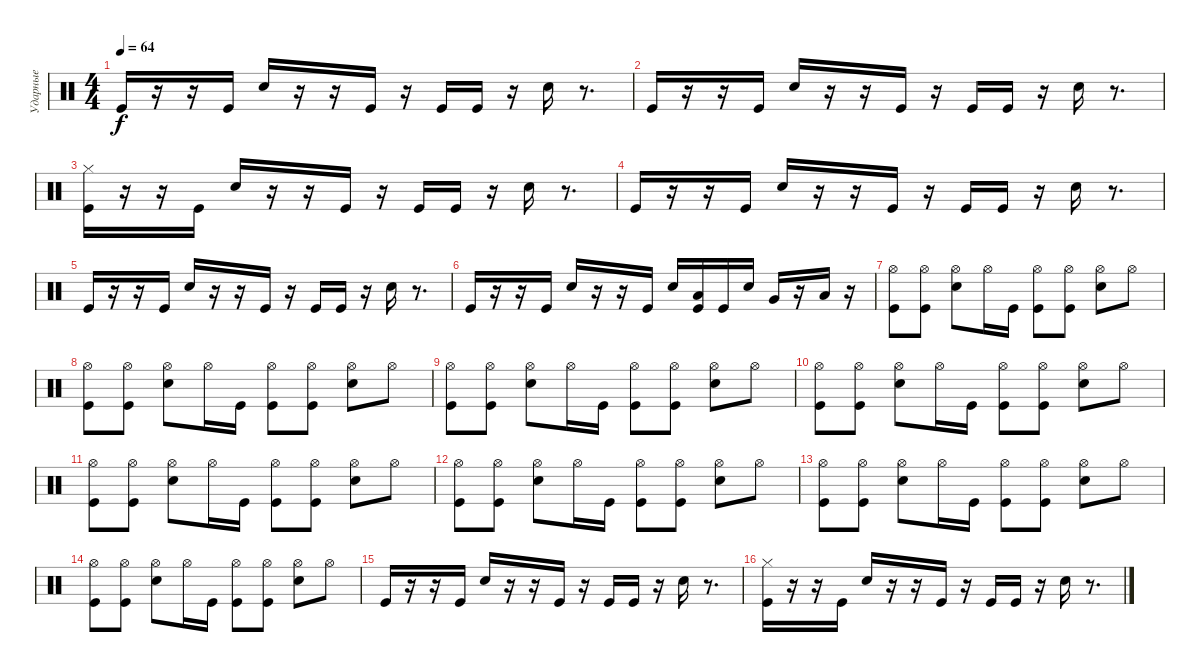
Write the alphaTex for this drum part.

\track ("Ударные" "Ударные") {instrument percussion}
\staff {score}
\articulation defaults
\ts (4 4)
\tempo 64
\clef neutral
\ks c "Kick (hit)".16{dy f}
r.16 r.16 "Kick (hit)".16 "Snare (hit) 2".16 r.16 r.16 "Kick (hit)".16 r.16 "Kick (hit)".16 "Kick (hit)".16 r.16 "Snare (hit) 2".16 r.8{d} |
"Kick (hit)".16 r.16 r.16 "Kick (hit)".16 "Snare (hit) 2".16 r.16 r.16 "Kick (hit)".16 r.16 "Kick (hit)".16 "Kick (hit)".16 r.16 "Snare (hit) 2".16 r.8{d} |
("Kick (hit)" "Hi-Hat (closed)").16 r.16 r.16 "Kick (hit)".16 "Snare (hit) 2".16 r.16 r.16 "Kick (hit)".16 r.16 "Kick (hit)".16 "Kick (hit)".16 r.16 "Snare (hit) 2".16 r.8{d} |
"Kick (hit)".16 r.16 r.16 "Kick (hit)".16 "Snare (hit) 2".16 r.16 r.16 "Kick (hit)".16 r.16 "Kick (hit)".16 "Kick (hit)".16 r.16 "Snare (hit) 2".16 r.8{d} |
"Kick (hit)".16 r.16 r.16 "Kick (hit)".16 "Snare (hit) 2".16 r.16 r.16 "Kick (hit)".16 r.16 "Kick (hit)".16 "Kick (hit)".16 r.16 "Snare (hit) 2".16 r.8{d} |
"Kick (hit)".16 r.16 r.16 "Kick (hit)".16 "Snare (hit) 2".16 r.16 r.16 "Kick (hit)".16 "Snare (hit) 2".16 ("Kick (hit)" "Low Tom (hit)").16 "Kick (hit)".16 "Snare (hit) 2".16 "Very Low Tom (hit)".16 r.16 "Low Floor Tom (hit)".16 r.16 |
("Hi-Hat (open)" "Kick (hit)").8 ("Hi-Hat (open)" "Kick (hit)").8 ("Snare (hit) 2" "Hi-Hat (open)").8 "Hi-Hat (open)".16 "Kick (hit)".16 ("Hi-Hat (open)" "Kick (hit)").8 ("Hi-Hat (open)" "Kick (hit)").8 ("Hi-Hat (open)" "Snare (hit) 2").8 "Hi-Hat (open)".8 |
("Hi-Hat (open)" "Kick (hit)").8 ("Hi-Hat (open)" "Kick (hit)").8 ("Snare (hit) 2" "Hi-Hat (open)").8 "Hi-Hat (open)".16 "Kick (hit)".16 ("Hi-Hat (open)" "Kick (hit)").8 ("Hi-Hat (open)" "Kick (hit)").8 ("Hi-Hat (open)" "Snare (hit) 2").8 "Hi-Hat (open)".8 |
("Hi-Hat (open)" "Kick (hit)").8 ("Hi-Hat (open)" "Kick (hit)").8 ("Snare (hit) 2" "Hi-Hat (open)").8 "Hi-Hat (open)".16 "Kick (hit)".16 ("Hi-Hat (open)" "Kick (hit)").8 ("Hi-Hat (open)" "Kick (hit)").8 ("Hi-Hat (open)" "Snare (hit) 2").8 "Hi-Hat (open)".8 |
("Hi-Hat (open)" "Kick (hit)").8 ("Hi-Hat (open)" "Kick (hit)").8 ("Snare (hit) 2" "Hi-Hat (open)").8 "Hi-Hat (open)".16 "Kick (hit)".16 ("Hi-Hat (open)" "Kick (hit)").8 ("Hi-Hat (open)" "Kick (hit)").8 ("Hi-Hat (open)" "Snare (hit) 2").8 "Hi-Hat (open)".8 |
("Hi-Hat (open)" "Kick (hit)").8 ("Hi-Hat (open)" "Kick (hit)").8 ("Snare (hit) 2" "Hi-Hat (open)").8 "Hi-Hat (open)".16 "Kick (hit)".16 ("Hi-Hat (open)" "Kick (hit)").8 ("Hi-Hat (open)" "Kick (hit)").8 ("Hi-Hat (open)" "Snare (hit) 2").8 "Hi-Hat (open)".8 |
("Hi-Hat (open)" "Kick (hit)").8 ("Hi-Hat (open)" "Kick (hit)").8 ("Snare (hit) 2" "Hi-Hat (open)").8 "Hi-Hat (open)".16 "Kick (hit)".16 ("Hi-Hat (open)" "Kick (hit)").8 ("Hi-Hat (open)" "Kick (hit)").8 ("Hi-Hat (open)" "Snare (hit) 2").8 "Hi-Hat (open)".8 |
("Hi-Hat (open)" "Kick (hit)").8 ("Hi-Hat (open)" "Kick (hit)").8 ("Snare (hit) 2" "Hi-Hat (open)").8 "Hi-Hat (open)".16 "Kick (hit)".16 ("Hi-Hat (open)" "Kick (hit)").8 ("Hi-Hat (open)" "Kick (hit)").8 ("Hi-Hat (open)" "Snare (hit) 2").8 "Hi-Hat (open)".8 |
("Hi-Hat (open)" "Kick (hit)").8 ("Hi-Hat (open)" "Kick (hit)").8 ("Snare (hit) 2" "Hi-Hat (open)").8 "Hi-Hat (open)".16 "Kick (hit)".16 ("Hi-Hat (open)" "Kick (hit)").8 ("Hi-Hat (open)" "Kick (hit)").8 ("Hi-Hat (open)" "Snare (hit) 2").8 "Hi-Hat (open)".8 |
"Kick (hit)".16 r.16 r.16 "Kick (hit)".16 "Snare (hit) 2".16 r.16 r.16 "Kick (hit)".16 r.16 "Kick (hit)".16 "Kick (hit)".16 r.16 "Snare (hit) 2".16 r.8{d} |
("Kick (hit)" "Hi-Hat (closed)").16 r.16 r.16 "Kick (hit)".16 "Snare (hit) 2".16 r.16 r.16 "Kick (hit)".16 r.16 "Kick (hit)".16 "Kick (hit)".16 r.16 "Snare (hit) 2".16 r.8{d}
